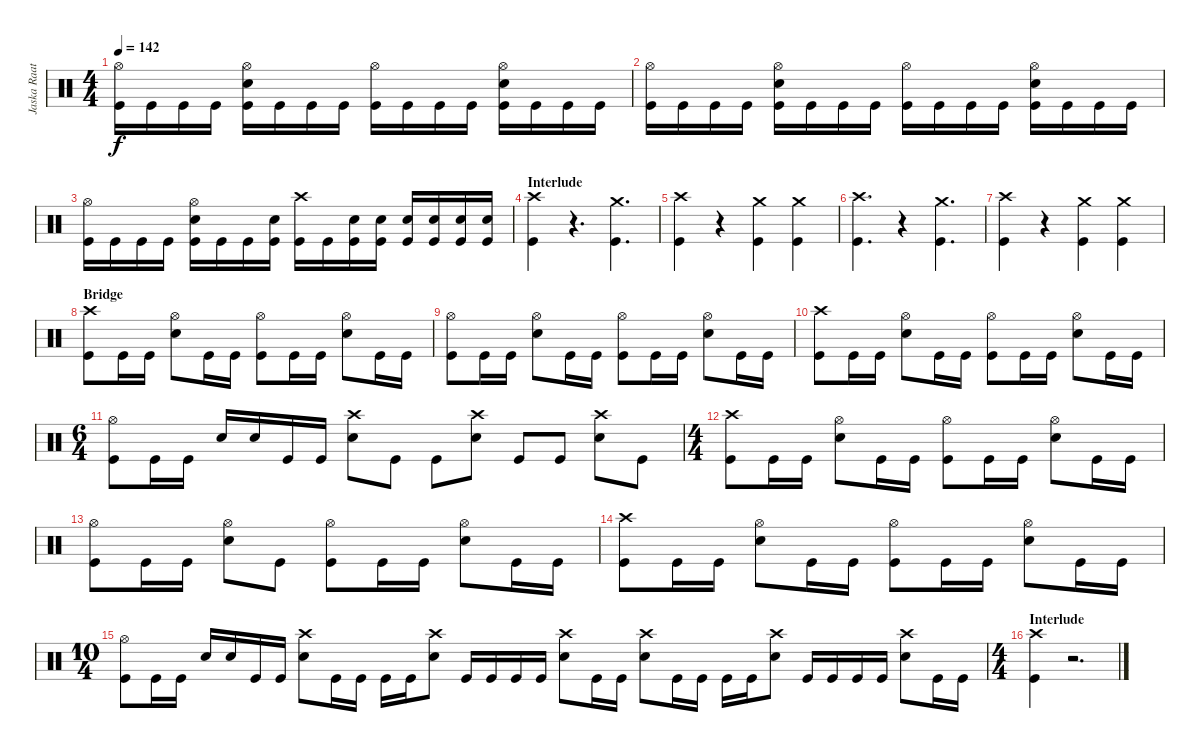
\track ("Jaska Raatikainen" "Jaska Raat") {instrument percussion}
\staff {score}
\articulation defaults
\ts (4 4)
\tempo 142
\clef neutral
\ks c
("Hi-Hat (open)" "Kick (hit)").16{dy f} "Kick (hit)".16 "Kick (hit)".16 "Kick (hit)".16 ("Hi-Hat (open)" "Snare (hit) 2" "Kick (hit)").16 "Kick (hit)".16 "Kick (hit)".16 "Kick (hit)".16 ("Hi-Hat (open)" "Kick (hit)").16 "Kick (hit)".16 "Kick (hit)".16 "Kick (hit)".16 ("Hi-Hat (open)" "Snare (hit) 2" "Kick (hit)").16 "Kick (hit)".16 "Kick (hit)".16 "Kick (hit)".16 |
("Hi-Hat (open)" "Kick (hit)").16 "Kick (hit)".16 "Kick (hit)".16 "Kick (hit)".16 ("Hi-Hat (open)" "Snare (hit) 2" "Kick (hit)").16 "Kick (hit)".16 "Kick (hit)".16 "Kick (hit)".16 ("Hi-Hat (open)" "Kick (hit)").16 "Kick (hit)".16 "Kick (hit)".16 "Kick (hit)".16 ("Hi-Hat (open)" "Snare (hit) 2" "Kick (hit)").16 "Kick (hit)".16 "Kick (hit)".16 "Kick (hit)".16 |
("Hi-Hat (open)" "Kick (hit)").16 "Kick (hit)".16 "Kick (hit)".16 "Kick (hit)".16 ("Hi-Hat (open)" "Snare (hit) 2" "Kick (hit)").16 "Kick (hit)".16 "Kick (hit)".16 ("Snare (hit) 2" "Kick (hit)").16 ("Crash high (hit)" "Kick (hit)").16 "Kick (hit)".16 ("Snare (hit) 2" "Kick (hit)").16 ("Snare (hit) 2" "Kick (hit)").16 ("Snare (hit) 2" "Kick (hit)").16 ("Snare (hit) 2" "Kick (hit)").16 ("Snare (hit) 2" "Kick (hit)").16 ("Snare (hit) 2" "Kick (hit)").16 |
\section ("" "Interlude")
("Crash high (hit)" "Kick (hit)").4 r.4{d} ("Crash medium (hit)" "Kick (hit)").4{d} |
("Crash high (hit)" "Kick (hit)").4 r.4 ("Crash medium (hit)" "Kick (hit)").4 ("Crash medium (hit)" "Kick (hit)").4 |
("Crash high (hit)" "Kick (hit)").4{d} r.4 ("Crash medium (hit)" "Kick (hit)").4{d} |
("Crash high (hit)" "Kick (hit)").4 r.4 ("Crash medium (hit)" "Kick (hit)").4 ("Crash medium (hit)" "Kick (hit)").4 |
\section ("" "Bridge")
("Crash high (hit)" "Kick (hit)").8 "Kick (hit)".16 "Kick (hit)".16 ("Hi-Hat (open)" "Snare (hit) 2").8 "Kick (hit)".16 "Kick (hit)".16 ("Hi-Hat (open)" "Kick (hit)").8 "Kick (hit)".16 "Kick (hit)".16 ("Hi-Hat (open)" "Snare (hit) 2").8 "Kick (hit)".16 "Kick (hit)".16 |
("Hi-Hat (open)" "Kick (hit)").8 "Kick (hit)".16 "Kick (hit)".16 ("Hi-Hat (open)" "Snare (hit) 2").8 "Kick (hit)".16 "Kick (hit)".16 ("Hi-Hat (open)" "Kick (hit)").8 "Kick (hit)".16 "Kick (hit)".16 ("Hi-Hat (open)" "Snare (hit) 2").8 "Kick (hit)".16 "Kick (hit)".16 |
("Crash high (hit)" "Kick (hit)").8 "Kick (hit)".16 "Kick (hit)".16 ("Hi-Hat (open)" "Snare (hit) 2").8 "Kick (hit)".16 "Kick (hit)".16 ("Hi-Hat (open)" "Kick (hit)").8 "Kick (hit)".16 "Kick (hit)".16 ("Hi-Hat (open)" "Snare (hit) 2").8 "Kick (hit)".16 "Kick (hit)".16 |
\ts (6 4)
("Hi-Hat (open)" "Kick (hit)").8 "Kick (hit)".16 "Kick (hit)".16 "Snare (hit) 2".16 "Snare (hit) 2".16 "Kick (hit)".16 "Kick (hit)".16 ("Crash high (hit)" "Snare (hit) 2").8 "Kick (hit)".8 "Kick (hit)".8 ("Crash high (hit)" "Snare (hit) 2").8 "Kick (hit)".8 "Kick (hit)".8 ("Crash high (hit)" "Snare (hit) 2").8 "Kick (hit)".8 |
\ts (4 4)
("Crash high (hit)" "Kick (hit)").8 "Kick (hit)".16 "Kick (hit)".16 ("Hi-Hat (open)" "Snare (hit) 2").8 "Kick (hit)".16 "Kick (hit)".16 ("Hi-Hat (open)" "Kick (hit)").8 "Kick (hit)".16 "Kick (hit)".16 ("Hi-Hat (open)" "Snare (hit) 2").8 "Kick (hit)".16 "Kick (hit)".16 |
("Hi-Hat (open)" "Kick (hit)").8 "Kick (hit)".16 "Kick (hit)".16 ("Hi-Hat (open)" "Snare (hit) 2").8 "Kick (hit)".8 ("Hi-Hat (open)" "Kick (hit)").8 "Kick (hit)".16 "Kick (hit)".16 ("Hi-Hat (open)" "Snare (hit) 2").8 "Kick (hit)".16 "Kick (hit)".16 |
("Crash high (hit)" "Kick (hit)").8 "Kick (hit)".16 "Kick (hit)".16 ("Hi-Hat (open)" "Snare (hit) 2").8 "Kick (hit)".16 "Kick (hit)".16 ("Hi-Hat (open)" "Kick (hit)").8 "Kick (hit)".16 "Kick (hit)".16 ("Hi-Hat (open)" "Snare (hit) 2").8 "Kick (hit)".16 "Kick (hit)".16 |
\ts (10 4)
("Hi-Hat (open)" "Kick (hit)").8 "Kick (hit)".16 "Kick (hit)".16 "Snare (hit) 2".16 "Snare (hit) 2".16 "Kick (hit)".16 "Kick (hit)".16 ("Crash high (hit)" "Snare (hit) 2").8 "Kick (hit)".16 "Kick (hit)".16 "Kick (hit)".16 "Kick (hit)".16 ("Crash high (hit)" "Snare (hit) 2").8 "Kick (hit)".16 "Kick (hit)".16 "Kick (hit)".16 "Kick (hit)".16 ("Crash high (hit)" "Snare (hit) 2").8 "Kick (hit)".16 "Kick (hit)".16 ("Crash high (hit)" "Snare (hit) 2").8 "Kick (hit)".16 "Kick (hit)".16 "Kick (hit)".16 "Kick (hit)".16 ("Crash high (hit)" "Snare (hit) 2").8 "Kick (hit)".16 "Kick (hit)".16 "Kick (hit)".16 "Kick (hit)".16 ("Crash high (hit)" "Snare (hit) 2").8 "Kick (hit)".16 "Kick (hit)".16 |
\ts (4 4)
\section ("" "Interlude")
("Crash high (hit)" "Kick (hit)").4 r.2{d}
